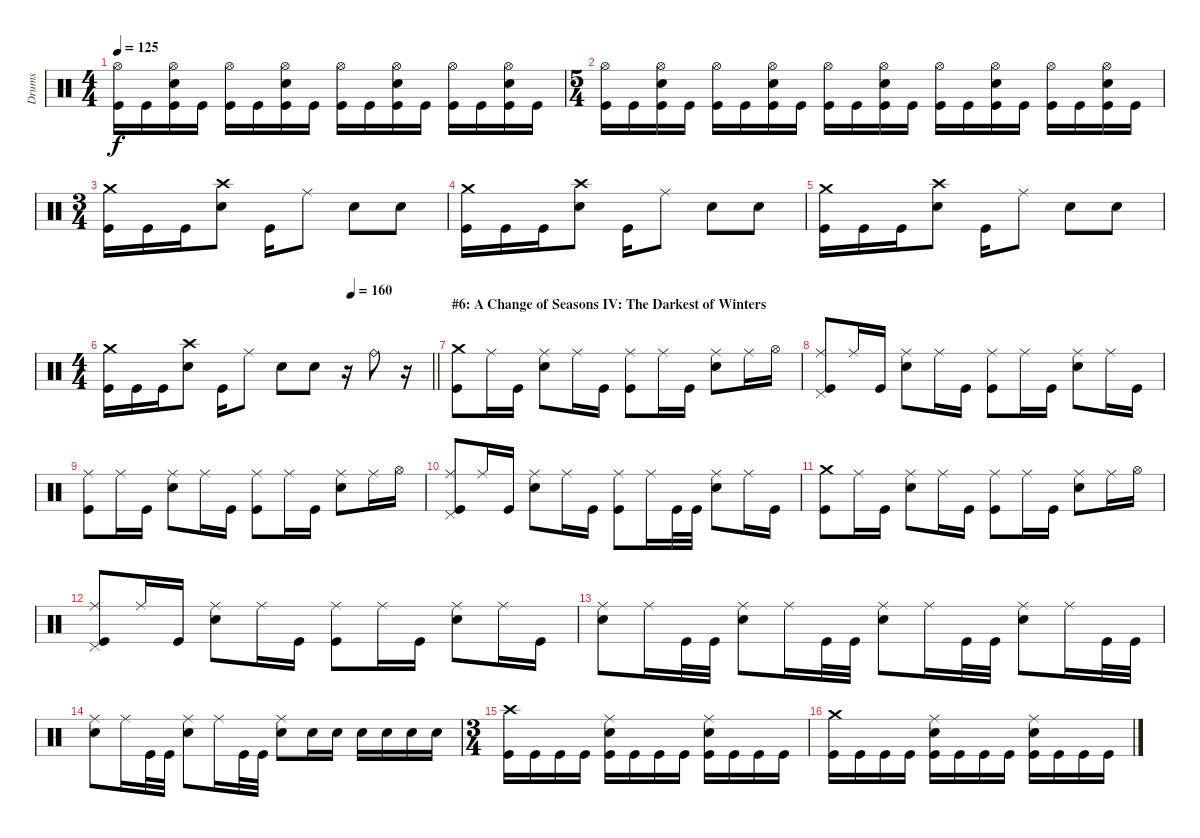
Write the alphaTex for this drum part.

\track ("Drums" "Drums") {instrument percussion}
\staff {score}
\articulation defaults
\ts (4 4)
\tempo 125
\clef neutral
\ks c
("Hi-Hat (open)" "Kick (hit)").16{dy f} "Kick (hit)".16 ("Hi-Hat (open)" "Snare (hit) 2" "Kick (hit)").16 "Kick (hit)".16 ("Hi-Hat (open)" "Kick (hit)").16 "Kick (hit)".16 ("Hi-Hat (open)" "Snare (hit) 2" "Kick (hit)").16 "Kick (hit)".16 ("Hi-Hat (open)" "Kick (hit)").16 "Kick (hit)".16 ("Hi-Hat (open)" "Snare (hit) 2" "Kick (hit)").16 "Kick (hit)".16 ("Hi-Hat (open)" "Kick (hit)").16 "Kick (hit)".16 ("Hi-Hat (open)" "Snare (hit) 2" "Kick (hit)").16 "Kick (hit)".16 |
\ts (5 4)
("Hi-Hat (open)" "Kick (hit)").16 "Kick (hit)".16 ("Hi-Hat (open)" "Snare (hit) 2" "Kick (hit)").16 "Kick (hit)".16 ("Hi-Hat (open)" "Kick (hit)").16 "Kick (hit)".16 ("Hi-Hat (open)" "Snare (hit) 2" "Kick (hit)").16 "Kick (hit)".16 ("Hi-Hat (open)" "Kick (hit)").16 "Kick (hit)".16 ("Hi-Hat (open)" "Snare (hit) 2" "Kick (hit)").16 "Kick (hit)".16 ("Hi-Hat (open)" "Kick (hit)").16 "Kick (hit)".16 ("Hi-Hat (open)" "Snare (hit) 2" "Kick (hit)").16 "Kick (hit)".16 ("Hi-Hat (open)" "Kick (hit)").16 "Kick (hit)".16 ("Hi-Hat (open)" "Snare (hit) 2" "Kick (hit)").16 "Kick (hit)".16 |
\ts (3 4)
("Crash medium (hit)" "Kick (hit)").16 "Kick (hit)".16 "Kick (hit)".16 ("Crash high (hit)" "Snare (hit) 2").8 "Kick (hit)".16 "Ride (middle)".8 "Snare (hit) 2".8 "Snare (hit) 2".8 |
("Crash medium (hit)" "Kick (hit)").16 "Kick (hit)".16 "Kick (hit)".16 ("Crash high (hit)" "Snare (hit) 2").8 "Kick (hit)".16 "Ride (middle)".8 "Snare (hit) 2".8 "Snare (hit) 2".8 |
("Crash medium (hit)" "Kick (hit)").16 "Kick (hit)".16 "Kick (hit)".16 ("Crash high (hit)" "Snare (hit) 2").8 "Kick (hit)".16 "Ride (middle)".8 "Snare (hit) 2".8 "Snare (hit) 2".8 |
\ts (4 4)
\tempo (160 0.75)
\barLineRight lightlight
("Crash medium (hit)" "Kick (hit)").16 "Kick (hit)".16 "Kick (hit)".16 ("Crash high (hit)" "Snare (hit) 2").8 "Kick (hit)".16 "Ride (middle)".8 "Snare (hit) 2".8 "Snare (hit) 2".8 r.16 "Ride (bell)".8 r.16 |
\section ("" "#6: A Change of Seasons IV: The Darkest of Winters")
("Crash medium (hit)" "Kick (hit)").8 "Ride (middle)".16 "Kick (hit)".16 ("Ride (middle)" "Snare (hit) 2").8 "Ride (middle)".16 "Kick (hit)".16 ("Ride (middle)" "Kick (hit)").8 "Ride (middle)".16 "Kick (hit)".16 ("Ride (middle)" "Snare (hit) 2").8 "Ride (middle)".16 "Hi-Hat (open)".16 |
("Pedal Hi-Hat (hit)" "Ride (middle)" "Kick (hit)").8 "Ride (middle)".16 "Kick (hit)".16 ("Ride (middle)" "Snare (hit) 2").8 "Ride (middle)".16 "Kick (hit)".16 ("Ride (middle)" "Kick (hit)").8 "Ride (middle)".16 "Kick (hit)".16 ("Ride (middle)" "Snare (hit) 2").8 "Ride (middle)".16 "Kick (hit)".16 |
("Ride (middle)" "Kick (hit)").8 "Ride (middle)".16 "Kick (hit)".16 ("Ride (middle)" "Snare (hit) 2").8 "Ride (middle)".16 "Kick (hit)".16 ("Ride (middle)" "Kick (hit)").8 "Ride (middle)".16 "Kick (hit)".16 ("Ride (middle)" "Snare (hit) 2").8 "Ride (middle)".16 "Hi-Hat (open)".16 |
("Pedal Hi-Hat (hit)" "Ride (middle)" "Kick (hit)").8 "Ride (middle)".16 "Kick (hit)".16 ("Ride (middle)" "Snare (hit) 2").8 "Ride (middle)".16 "Kick (hit)".16 ("Ride (middle)" "Kick (hit)").8 "Ride (middle)".16 "Kick (hit)".32 "Kick (hit)".32 ("Ride (middle)" "Snare (hit) 2").8 "Ride (middle)".16 "Kick (hit)".16 |
("Crash medium (hit)" "Kick (hit)").8 "Ride (middle)".16 "Kick (hit)".16 ("Ride (middle)" "Snare (hit) 2").8 "Ride (middle)".16 "Kick (hit)".16 ("Ride (middle)" "Kick (hit)").8 "Ride (middle)".16 "Kick (hit)".16 ("Ride (middle)" "Snare (hit) 2").8 "Ride (middle)".16 "Hi-Hat (open)".16 |
("Pedal Hi-Hat (hit)" "Ride (middle)" "Kick (hit)").8 "Ride (middle)".16 "Kick (hit)".16 ("Ride (middle)" "Snare (hit) 2").8 "Ride (middle)".16 "Kick (hit)".16 ("Ride (middle)" "Kick (hit)").8 "Ride (middle)".16 "Kick (hit)".16 ("Ride (middle)" "Snare (hit) 2").8 "Ride (middle)".16 "Kick (hit)".16 |
("Ride (middle)" "Snare (hit) 2").8 "Ride (middle)".16 "Kick (hit)".32 "Kick (hit)".32 ("Ride (middle)" "Snare (hit) 2").8 "Ride (middle)".16 "Kick (hit)".32 "Kick (hit)".32 ("Ride (middle)" "Snare (hit) 2").8 "Ride (middle)".16 "Kick (hit)".32 "Kick (hit)".32 ("Ride (middle)" "Snare (hit) 2").8 "Ride (middle)".16 "Kick (hit)".32 "Kick (hit)".32 |
("Ride (middle)" "Snare (hit) 2").8 "Ride (middle)".16 "Kick (hit)".32 "Kick (hit)".32 ("Ride (middle)" "Snare (hit) 2").8 "Ride (middle)".16 "Kick (hit)".32 "Kick (hit)".32 ("Ride (middle)" "Snare (hit) 2").8 "Snare (hit) 2".16 "Snare (hit) 2".16 "Snare (hit) 2".16 "Snare (hit) 2".16 "Snare (hit) 2".16 "Snare (hit) 2".16 |
\ts (3 4)
("Crash high (hit)" "Kick (hit)").16 "Kick (hit)".16 "Kick (hit)".16 "Kick (hit)".16 ("Ride (middle)" "Snare (hit) 2" "Kick (hit)").16 "Kick (hit)".16 "Kick (hit)".16 "Kick (hit)".16 ("Ride (middle)" "Snare (hit) 2" "Kick (hit)").16 "Kick (hit)".16 "Kick (hit)".16 "Kick (hit)".16 |
("Crash medium (hit)" "Kick (hit)").16 "Kick (hit)".16 "Kick (hit)".16 "Kick (hit)".16 ("Ride (middle)" "Snare (hit) 2" "Kick (hit)").16 "Kick (hit)".16 "Kick (hit)".16 "Kick (hit)".16 ("Ride (middle)" "Snare (hit) 2" "Kick (hit)").16 "Kick (hit)".16 "Kick (hit)".16 "Kick (hit)".16
